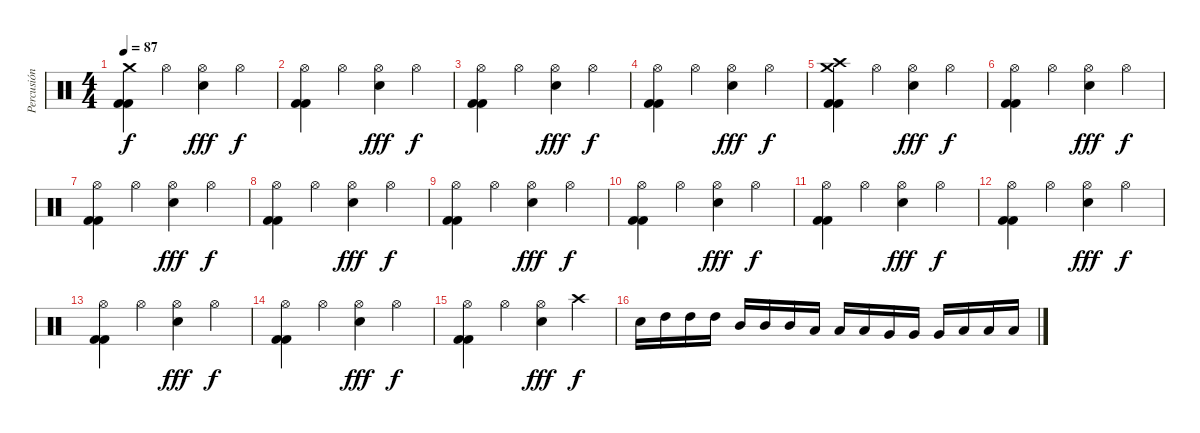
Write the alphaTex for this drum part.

\track ("Percusión" "Percusión") {instrument percussion}
\staff {score}
\articulation defaults
\ts (4 4)
\tempo 87
\clef neutral
\ks c
("Crash medium (hit)" "Kick (hit) 2" "Kick (hit) 2").4{dy f} "Hi-Hat (open)".4 ("Hi-Hat (open)" "Snare (hit) 2").4{dy fff} "Hi-Hat (open)".4{dy f} |
("Hi-Hat (open)" "Kick (hit) 2" "Kick (hit) 2").4 "Hi-Hat (open)".4 ("Hi-Hat (open)" "Snare (hit) 2").4{dy fff} "Hi-Hat (open)".4{dy f} |
("Hi-Hat (open)" "Kick (hit) 2" "Kick (hit) 2").4 "Hi-Hat (open)".4 ("Hi-Hat (open)" "Snare (hit) 2").4{dy fff} "Hi-Hat (open)".4{dy f} |
("Hi-Hat (open)" "Kick (hit) 2" "Kick (hit) 2").4 "Hi-Hat (open)".4 ("Hi-Hat (open)" "Snare (hit) 2").4{dy fff} "Hi-Hat (open)".4{dy f} |
("Crash medium (hit)" "Crash high (hit)" "Kick (hit) 2" "Kick (hit) 2").4 "Hi-Hat (open)".4 ("Hi-Hat (open)" "Snare (hit) 2").4{dy fff} "Hi-Hat (open)".4{dy f} |
("Hi-Hat (open)" "Kick (hit) 2" "Kick (hit) 2").4 "Hi-Hat (open)".4 ("Hi-Hat (open)" "Snare (hit) 2").4{dy fff} "Hi-Hat (open)".4{dy f} |
("Hi-Hat (open)" "Kick (hit) 2" "Kick (hit) 2").4 "Hi-Hat (open)".4 ("Hi-Hat (open)" "Snare (hit) 2").4{dy fff} "Hi-Hat (open)".4{dy f} |
("Hi-Hat (open)" "Kick (hit) 2" "Kick (hit) 2").4 "Hi-Hat (open)".4 ("Hi-Hat (open)" "Snare (hit) 2").4{dy fff} "Hi-Hat (open)".4{dy f} |
("Hi-Hat (open)" "Kick (hit) 2" "Kick (hit) 2").4 "Hi-Hat (open)".4 ("Hi-Hat (open)" "Snare (hit) 2").4{dy fff} "Hi-Hat (open)".4{dy f} |
("Hi-Hat (open)" "Kick (hit) 2" "Kick (hit) 2").4 "Hi-Hat (open)".4 ("Hi-Hat (open)" "Snare (hit) 2").4{dy fff} "Hi-Hat (open)".4{dy f} |
("Hi-Hat (open)" "Kick (hit) 2" "Kick (hit) 2").4 "Hi-Hat (open)".4 ("Hi-Hat (open)" "Snare (hit) 2").4{dy fff} "Hi-Hat (open)".4{dy f} |
("Hi-Hat (open)" "Kick (hit) 2" "Kick (hit) 2").4 "Hi-Hat (open)".4 ("Hi-Hat (open)" "Snare (hit) 2").4{dy fff} "Hi-Hat (open)".4{dy f} |
("Hi-Hat (open)" "Kick (hit) 2" "Kick (hit) 2").4 "Hi-Hat (open)".4 ("Hi-Hat (open)" "Snare (hit) 2").4{dy fff} "Hi-Hat (open)".4{dy f} |
("Hi-Hat (open)" "Kick (hit) 2" "Kick (hit) 2").4 "Hi-Hat (open)".4 ("Hi-Hat (open)" "Snare (hit) 2").4{dy fff} "Hi-Hat (open)".4{dy f} |
("Hi-Hat (open)" "Kick (hit) 2" "Kick (hit) 2").4 "Hi-Hat (open)".4 ("Hi-Hat (open)" "Snare (hit) 2").4{dy fff} "Crash high (hit)".4{dy f} |
"Snare (hit) 2".16 "High Tom (hit)".16 "High Tom (hit)".16 "High Tom (hit)".16 "Mid Tom (hit)".16 "Mid Tom (hit)".16 "Mid Tom (hit)".16 "Low Tom (hit)".16 "Low Tom (hit)".16 "Low Tom (hit)".16 "Very Low Tom (hit)".16 "Very Low Tom (hit)".16 "Very Low Tom (hit)".16 "Low Floor Tom (hit)".16 "Low Floor Tom (hit)".16 "Low Floor Tom (hit)".16
